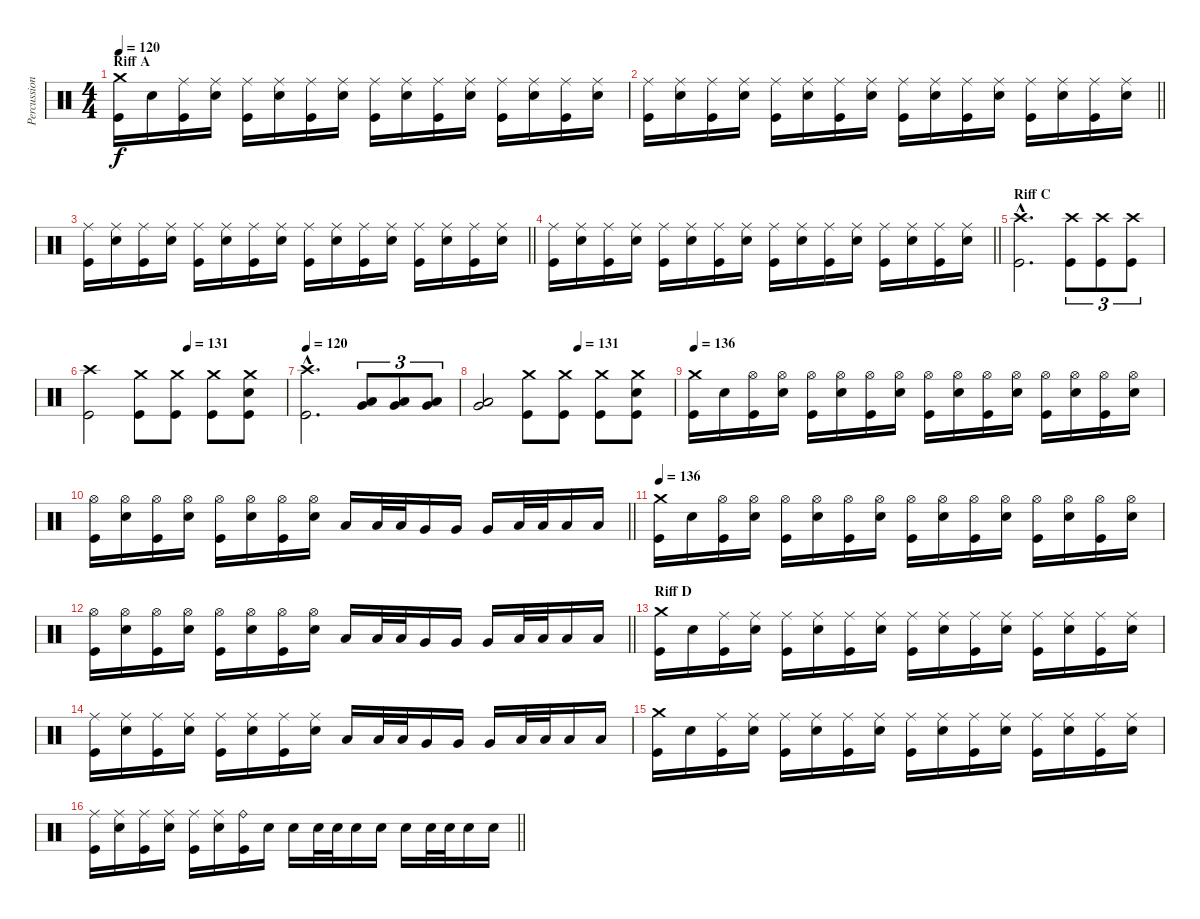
\track ("Percussion" "Percussion") {instrument percussion}
\staff {score}
\articulation defaults
\ts (4 4)
\section ("" "Riff A")
\tempo 120
\clef neutral
\ks c
("Kick (hit)" "Crash medium (hit)").16{dy f} "Snare (hit) 2".16 ("Kick (hit)" "Ride (middle)").16 ("Snare (hit) 2" "Ride (middle)").16 ("Kick (hit)" "Ride (middle)").16 ("Snare (hit) 2" "Ride (middle)").16 ("Kick (hit)" "Ride (middle)").16 ("Snare (hit) 2" "Ride (middle)").16 ("Kick (hit)" "Ride (middle)").16 ("Snare (hit) 2" "Ride (middle)").16 ("Kick (hit)" "Ride (middle)").16 ("Snare (hit) 2" "Ride (middle)").16 ("Kick (hit)" "Ride (middle)").16 ("Snare (hit) 2" "Ride (middle)").16 ("Kick (hit)" "Ride (middle)").16 ("Snare (hit) 2" "Ride (middle)").16 |
\barLineRight lightlight
("Kick (hit)" "Ride (middle)").16 ("Snare (hit) 2" "Ride (middle)").16 ("Kick (hit)" "Ride (middle)").16 ("Snare (hit) 2" "Ride (middle)").16 ("Kick (hit)" "Ride (middle)").16 ("Snare (hit) 2" "Ride (middle)").16 ("Kick (hit)" "Ride (middle)").16 ("Snare (hit) 2" "Ride (middle)").16 ("Kick (hit)" "Ride (middle)").16 ("Snare (hit) 2" "Ride (middle)").16 ("Kick (hit)" "Ride (middle)").16 ("Snare (hit) 2" "Ride (middle)").16 ("Kick (hit)" "Ride (middle)").16 ("Snare (hit) 2" "Ride (middle)").16 ("Kick (hit)" "Ride (middle)").16 ("Snare (hit) 2" "Ride (middle)").16 |
\barLineRight lightlight
("Kick (hit)" "Ride (middle)").16 ("Snare (hit) 2" "Ride (middle)").16 ("Kick (hit)" "Ride (middle)").16 ("Snare (hit) 2" "Ride (middle)").16 ("Kick (hit)" "Ride (middle)").16 ("Snare (hit) 2" "Ride (middle)").16 ("Kick (hit)" "Ride (middle)").16 ("Snare (hit) 2" "Ride (middle)").16 ("Kick (hit)" "Ride (middle)").16 ("Snare (hit) 2" "Ride (middle)").16 ("Kick (hit)" "Ride (middle)").16 ("Snare (hit) 2" "Ride (middle)").16 ("Kick (hit)" "Ride (middle)").16 ("Snare (hit) 2" "Ride (middle)").16 ("Kick (hit)" "Ride (middle)").16 ("Snare (hit) 2" "Ride (middle)").16 |
\barLineRight lightlight
("Kick (hit)" "Ride (middle)").16 ("Snare (hit) 2" "Ride (middle)").16 ("Kick (hit)" "Ride (middle)").16 ("Snare (hit) 2" "Ride (middle)").16 ("Kick (hit)" "Ride (middle)").16 ("Snare (hit) 2" "Ride (middle)").16 ("Kick (hit)" "Ride (middle)").16 ("Snare (hit) 2" "Ride (middle)").16 ("Kick (hit)" "Ride (middle)").16 ("Snare (hit) 2" "Ride (middle)").16 ("Kick (hit)" "Ride (middle)").16 ("Snare (hit) 2" "Ride (middle)").16 ("Kick (hit)" "Ride (middle)").16 ("Snare (hit) 2" "Ride (middle)").16 ("Kick (hit)" "Ride (middle)").16 ("Snare (hit) 2" "Ride (middle)").16 |
\section ("" "Riff C")
("Kick (hit)"{hac} "Crash high (hit)"{hac}).2{d} ("Kick (hit)" "Crash high (hit)").8{tu (3 2)} ("Kick (hit)" "Crash high (hit)").8{tu (3 2)} ("Kick (hit)" "Crash high (hit)").8{tu (3 2)} |
\tempo (131 0.5)
("Kick (hit)" "Crash high (hit)").2 ("Kick (hit)" "Crash medium (hit)").8 ("Kick (hit)" "Crash medium (hit)").8 ("Kick (hit)" "Crash medium (hit)").8 ("Kick (hit)" "Snare (hit) 2" "Crash medium (hit)").8 |
\tempo 120
("Kick (hit)"{hac} "Crash high (hit)"{hac}).2{d} ("Low Floor Tom (hit)" "Very Low Tom (hit)").8{tu (3 2)} ("Low Floor Tom (hit)" "Very Low Tom (hit)").8{tu (3 2)} ("Low Floor Tom (hit)" "Very Low Tom (hit)").8{tu (3 2)} |
\tempo (131 0.5)
("Low Floor Tom (hit)" "Very Low Tom (hit)").2 ("Kick (hit)" "Crash medium (hit)").8 ("Kick (hit)" "Crash medium (hit)").8 ("Kick (hit)" "Crash medium (hit)").8 ("Kick (hit)" "Snare (hit) 2" "Crash medium (hit)").8 |
\tempo 136
("Kick (hit)" "Crash medium (hit)").16 "Snare (hit) 2".16 ("Kick (hit)" "Hi-Hat (open)").16 ("Snare (hit) 2" "Hi-Hat (open)").16 ("Kick (hit)" "Hi-Hat (open)").16 ("Snare (hit) 2" "Hi-Hat (open)").16 ("Kick (hit)" "Hi-Hat (open)").16 ("Snare (hit) 2" "Hi-Hat (open)").16 ("Kick (hit)" "Hi-Hat (open)").16 ("Snare (hit) 2" "Hi-Hat (open)").16 ("Kick (hit)" "Hi-Hat (open)").16 ("Snare (hit) 2" "Hi-Hat (open)").16 ("Kick (hit)" "Hi-Hat (open)").16 ("Snare (hit) 2" "Hi-Hat (open)").16 ("Kick (hit)" "Hi-Hat (open)").16 ("Snare (hit) 2" "Hi-Hat (open)").16 |
\barLineRight lightlight
("Kick (hit)" "Hi-Hat (open)").16 ("Snare (hit) 2" "Hi-Hat (open)").16 ("Kick (hit)" "Hi-Hat (open)").16 ("Snare (hit) 2" "Hi-Hat (open)").16 ("Kick (hit)" "Hi-Hat (open)").16 ("Snare (hit) 2" "Hi-Hat (open)").16 ("Kick (hit)" "Hi-Hat (open)").16 ("Snare (hit) 2" "Hi-Hat (open)").16 "Low Tom (hit)".16 "Low Tom (hit)".32 "Low Tom (hit)".32 "Very Low Tom (hit)".16 "Very Low Tom (hit)".16 "Very Low Tom (hit)".16 "Low Floor Tom (hit)".32 "Low Floor Tom (hit)".32 "Low Floor Tom (hit)".16 "Low Floor Tom (hit)".16 |
\tempo 136
("Kick (hit)" "Crash medium (hit)").16 "Snare (hit) 2".16 ("Kick (hit)" "Hi-Hat (open)").16 ("Snare (hit) 2" "Hi-Hat (open)").16 ("Kick (hit)" "Hi-Hat (open)").16 ("Snare (hit) 2" "Hi-Hat (open)").16 ("Kick (hit)" "Hi-Hat (open)").16 ("Snare (hit) 2" "Hi-Hat (open)").16 ("Kick (hit)" "Hi-Hat (open)").16 ("Snare (hit) 2" "Hi-Hat (open)").16 ("Kick (hit)" "Hi-Hat (open)").16 ("Snare (hit) 2" "Hi-Hat (open)").16 ("Kick (hit)" "Hi-Hat (open)").16 ("Snare (hit) 2" "Hi-Hat (open)").16 ("Kick (hit)" "Hi-Hat (open)").16 ("Snare (hit) 2" "Hi-Hat (open)").16 |
\barLineRight lightlight
("Kick (hit)" "Hi-Hat (open)").16 ("Snare (hit) 2" "Hi-Hat (open)").16 ("Kick (hit)" "Hi-Hat (open)").16 ("Snare (hit) 2" "Hi-Hat (open)").16 ("Kick (hit)" "Hi-Hat (open)").16 ("Snare (hit) 2" "Hi-Hat (open)").16 ("Kick (hit)" "Hi-Hat (open)").16 ("Snare (hit) 2" "Hi-Hat (open)").16 "Low Tom (hit)".16 "Low Tom (hit)".32 "Low Tom (hit)".32 "Very Low Tom (hit)".16 "Very Low Tom (hit)".16 "Very Low Tom (hit)".16 "Low Floor Tom (hit)".32 "Low Floor Tom (hit)".32 "Low Floor Tom (hit)".16 "Low Floor Tom (hit)".16 |
\section ("" "Riff D")
("Kick (hit)" "Crash medium (hit)").16 "Snare (hit) 2".16 ("Kick (hit)" "Ride (middle)").16 ("Snare (hit) 2" "Ride (middle)").16 ("Kick (hit)" "Ride (middle)").16 ("Snare (hit) 2" "Ride (middle)").16 ("Kick (hit)" "Ride (middle)").16 ("Snare (hit) 2" "Ride (middle)").16 ("Kick (hit)" "Ride (middle)").16 ("Snare (hit) 2" "Ride (middle)").16 ("Kick (hit)" "Ride (middle)").16 ("Snare (hit) 2" "Ride (middle)").16 ("Kick (hit)" "Ride (middle)").16 ("Snare (hit) 2" "Ride (middle)").16 ("Kick (hit)" "Ride (middle)").16 ("Snare (hit) 2" "Ride (middle)").16 |
("Kick (hit)" "Ride (middle)").16 ("Snare (hit) 2" "Ride (middle)").16 ("Kick (hit)" "Ride (middle)").16 ("Snare (hit) 2" "Ride (middle)").16 ("Kick (hit)" "Ride (middle)").16 ("Snare (hit) 2" "Ride (middle)").16 ("Kick (hit)" "Ride (middle)").16 ("Snare (hit) 2" "Ride (middle)").16 "Low Tom (hit)".16 "Low Tom (hit)".32 "Low Tom (hit)".32 "Very Low Tom (hit)".16 "Very Low Tom (hit)".16 "Very Low Tom (hit)".16 "Low Floor Tom (hit)".32 "Low Floor Tom (hit)".32 "Low Floor Tom (hit)".16 "Low Floor Tom (hit)".16 |
("Kick (hit)" "Crash medium (hit)").16 "Snare (hit) 2".16 ("Kick (hit)" "Ride (middle)").16 ("Snare (hit) 2" "Ride (middle)").16 ("Kick (hit)" "Ride (middle)").16 ("Snare (hit) 2" "Ride (middle)").16 ("Kick (hit)" "Ride (middle)").16 ("Snare (hit) 2" "Ride (middle)").16 ("Kick (hit)" "Ride (middle)").16 ("Snare (hit) 2" "Ride (middle)").16 ("Kick (hit)" "Ride (middle)").16 ("Snare (hit) 2" "Ride (middle)").16 ("Kick (hit)" "Ride (middle)").16 ("Snare (hit) 2" "Ride (middle)").16 ("Kick (hit)" "Ride (middle)").16 ("Snare (hit) 2" "Ride (middle)").16 |
\barLineRight lightlight
("Kick (hit)" "Ride (middle)").16 ("Snare (hit) 2" "Ride (middle)").16 ("Kick (hit)" "Ride (middle)").16 ("Snare (hit) 2" "Ride (middle)").16 ("Kick (hit)" "Ride (middle)").16 ("Snare (hit) 2" "Ride (middle)").16 ("Kick (hit)" "Ride (bell)").16 "Snare (hit) 2".16 "Snare (hit) 2".16 "Snare (hit) 2".32 "Snare (hit) 2".32 "Snare (hit) 2".16 "Snare (hit) 2".16 "Snare (hit) 2".16 "Snare (hit) 2".32 "Snare (hit) 2".32 "Snare (hit) 2".16 "Snare (hit) 2".16
